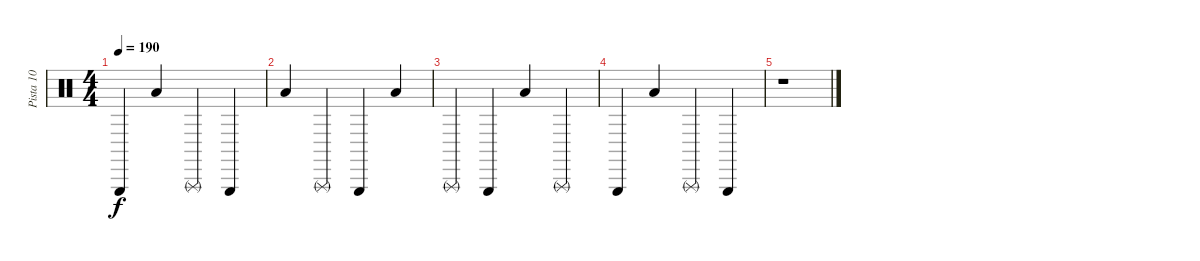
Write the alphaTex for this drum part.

\track ("Pista 10" "Pista 10") {instrument percussion}
\staff {score}
\articulation defaults
\ts (4 4)
\tempo 190
\clef neutral
\ks c "Triangle (hit)".4{dy f} "Low Floor Tom (hit)".4 "Triangle (rnute)".4 "Triangle (hit)".4
|
"Low Floor Tom (hit)".4 "Triangle (rnute)".4 "Triangle (hit)".4 "Low Floor Tom (hit)".4 |
"Triangle (rnute)".4 "Triangle (hit)".4 "Low Floor Tom (hit)".4 "Triangle (rnute)".4 |
"Triangle (hit)".4 "Low Floor Tom (hit)".4 "Triangle (rnute)".4 "Triangle (hit)".4 |
r.1
